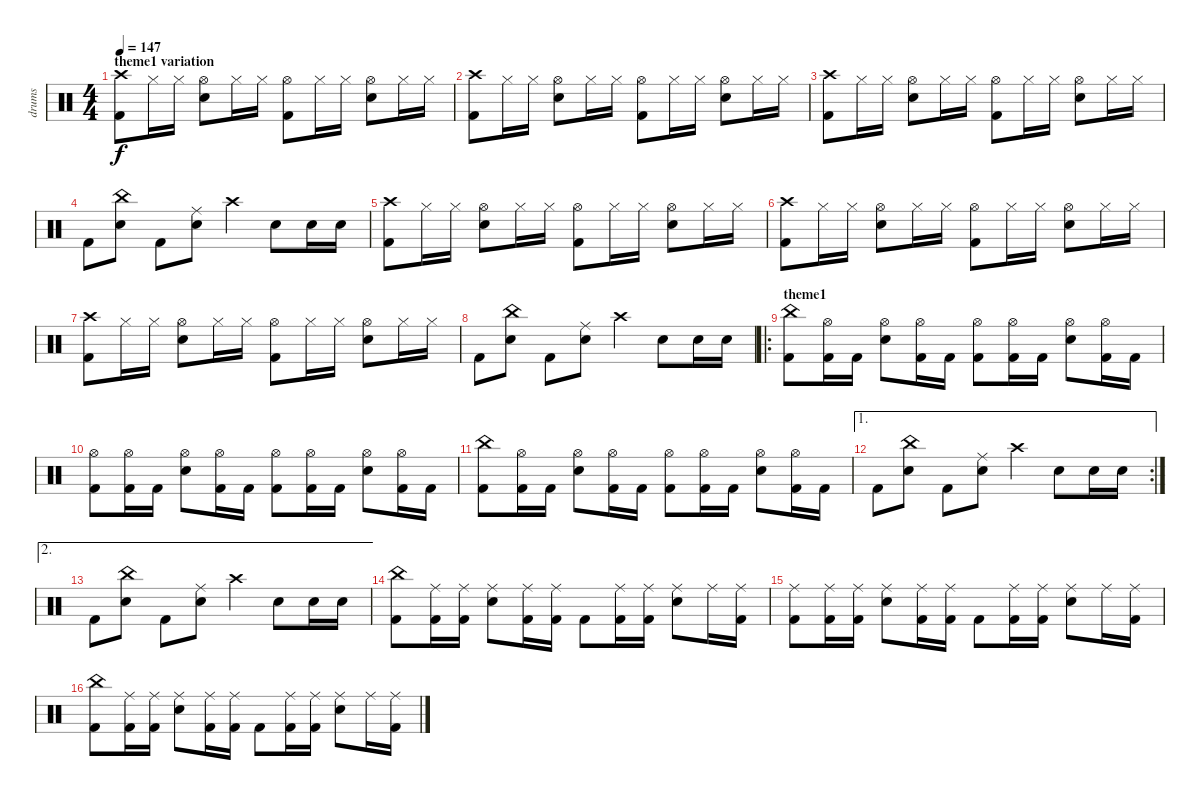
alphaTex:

\track ("drums" "drums") {instrument percussion}
\staff {score}
\articulation defaults
\ts (4 4)
\section ("" "theme1 variation")
\tempo 147
\clef neutral
\ks c
("Crash high (hit)" "Kick (hit) 2").8{dy f} "Hi-Hat (closed)".16 "Hi-Hat (closed)".16 ("Hi-Hat (open)" "Snare (hit) 2").8 "Hi-Hat (closed)".16 "Hi-Hat (closed)".16 ("Hi-Hat (open)" "Kick (hit) 2").8 "Hi-Hat (closed)".16 "Hi-Hat (closed)".16 ("Hi-Hat (open)" "Snare (hit) 2").8 "Hi-Hat (closed)".16 "Hi-Hat (closed)".16 |
("Crash high (hit)" "Kick (hit) 2").8 "Hi-Hat (closed)".16 "Hi-Hat (closed)".16 ("Hi-Hat (open)" "Snare (hit) 2").8 "Hi-Hat (closed)".16 "Hi-Hat (closed)".16 ("Hi-Hat (open)" "Kick (hit) 2").8 "Hi-Hat (closed)".16 "Hi-Hat (closed)".16 ("Hi-Hat (open)" "Snare (hit) 2").8 "Hi-Hat (closed)".16 "Hi-Hat (closed)".16 |
("Crash high (hit)" "Kick (hit) 2").8 "Hi-Hat (closed)".16 "Hi-Hat (closed)".16 ("Hi-Hat (open)" "Snare (hit) 2").8 "Hi-Hat (closed)".16 "Hi-Hat (closed)".16 ("Hi-Hat (open)" "Kick (hit) 2").8 "Hi-Hat (closed)".16 "Hi-Hat (closed)".16 ("Hi-Hat (open)" "Snare (hit) 2").8 "Hi-Hat (closed)".16 "Hi-Hat (closed)".16 |
"Kick (hit) 2".8 ("China (hit)" "Snare (hit) 2").8 "Kick (hit) 2".8 ("Ride (middle)" "Snare (hit) 2").8 "Crash high (hit)".4 "Snare (hit) 2".8 "Snare (hit) 2".16 "Snare (hit) 2".16 |
("Crash high (hit)" "Kick (hit) 2").8 "Hi-Hat (closed)".16 "Hi-Hat (closed)".16 ("Hi-Hat (open)" "Snare (hit) 2").8 "Hi-Hat (closed)".16 "Hi-Hat (closed)".16 ("Hi-Hat (open)" "Kick (hit) 2").8 "Hi-Hat (closed)".16 "Hi-Hat (closed)".16 ("Hi-Hat (open)" "Snare (hit) 2").8 "Hi-Hat (closed)".16 "Hi-Hat (closed)".16 |
("Crash high (hit)" "Kick (hit) 2").8 "Hi-Hat (closed)".16 "Hi-Hat (closed)".16 ("Hi-Hat (open)" "Snare (hit) 2").8 "Hi-Hat (closed)".16 "Hi-Hat (closed)".16 ("Hi-Hat (open)" "Kick (hit) 2").8 "Hi-Hat (closed)".16 "Hi-Hat (closed)".16 ("Hi-Hat (open)" "Snare (hit) 2").8 "Hi-Hat (closed)".16 "Hi-Hat (closed)".16 |
("Crash high (hit)" "Kick (hit) 2").8 "Hi-Hat (closed)".16 "Hi-Hat (closed)".16 ("Hi-Hat (open)" "Snare (hit) 2").8 "Hi-Hat (closed)".16 "Hi-Hat (closed)".16 ("Hi-Hat (open)" "Kick (hit) 2").8 "Hi-Hat (closed)".16 "Hi-Hat (closed)".16 ("Hi-Hat (open)" "Snare (hit) 2").8 "Hi-Hat (closed)".16 "Hi-Hat (closed)".16 |
"Kick (hit) 2".8 ("China (hit)" "Snare (hit) 2").8 "Kick (hit) 2".8 ("Ride (middle)" "Snare (hit) 2").8 "Crash high (hit)".4 "Snare (hit) 2".8 "Snare (hit) 2".16 "Snare (hit) 2".16 |
\ro
\section ("" "theme1")
("China (hit)" "Kick (hit) 2").8 ("Hi-Hat (open)" "Kick (hit) 2").16 "Kick (hit) 2".16 ("Hi-Hat (open)" "Snare (hit) 2").8 ("Hi-Hat (open)" "Kick (hit) 2").16 "Kick (hit) 2".16 ("Hi-Hat (open)" "Kick (hit) 2").8 ("Hi-Hat (open)" "Kick (hit) 2").16 "Kick (hit) 2".16 ("Hi-Hat (open)" "Snare (hit) 2").8 ("Hi-Hat (open)" "Kick (hit) 2").16 "Kick (hit) 2".16 |
("Hi-Hat (open)" "Kick (hit) 2").8 ("Hi-Hat (open)" "Kick (hit) 2").16 "Kick (hit) 2".16 ("Hi-Hat (open)" "Snare (hit) 2").8 ("Hi-Hat (open)" "Kick (hit) 2").16 "Kick (hit) 2".16 ("Hi-Hat (open)" "Kick (hit) 2").8 ("Hi-Hat (open)" "Kick (hit) 2").16 "Kick (hit) 2".16 ("Hi-Hat (open)" "Snare (hit) 2").8 ("Hi-Hat (open)" "Kick (hit) 2").16 "Kick (hit) 2".16 |
("China (hit)" "Kick (hit) 2").8 ("Hi-Hat (open)" "Kick (hit) 2").16 "Kick (hit) 2".16 ("Hi-Hat (open)" "Snare (hit) 2").8 ("Hi-Hat (open)" "Kick (hit) 2").16 "Kick (hit) 2".16 ("Hi-Hat (open)" "Kick (hit) 2").8 ("Hi-Hat (open)" "Kick (hit) 2").16 "Kick (hit) 2".16 ("Hi-Hat (open)" "Snare (hit) 2").8 ("Hi-Hat (open)" "Kick (hit) 2").16 "Kick (hit) 2".16 |
\ae 1
\rc 2 "Kick (hit) 2".8
("China (hit)" "Snare (hit) 2").8 "Kick (hit) 2".8 ("Ride (middle)" "Snare (hit) 2").8 "Crash high (hit)".4 "Snare (hit) 2".8 "Snare (hit) 2".16 "Snare (hit) 2".16 |
\ae 2 "Kick (hit) 2".8
("China (hit)" "Snare (hit) 2").8 "Kick (hit) 2".8 ("Ride (middle)" "Snare (hit) 2").8 "Crash high (hit)".4 "Snare (hit) 2".8 "Snare (hit) 2".16 "Snare (hit) 2".16 |
("China (hit)" "Kick (hit) 2").8 ("Ride (middle)" "Kick (hit) 2").16 ("Ride (middle)" "Kick (hit) 2").16 ("Ride (middle)" "Snare (hit) 2").8 ("Ride (middle)" "Kick (hit) 2").16 ("Ride (middle)" "Kick (hit) 2").16 "Kick (hit) 2".8 ("Ride (middle)" "Kick (hit) 2").16 ("Ride (middle)" "Kick (hit) 2").16 ("Ride (middle)" "Snare (hit) 2").8 "Ride (middle)".16 ("Ride (middle)" "Kick (hit) 2").16 |
("Ride (middle)" "Kick (hit) 2").8 ("Ride (middle)" "Kick (hit) 2").16 ("Ride (middle)" "Kick (hit) 2").16 ("Ride (middle)" "Snare (hit) 2").8 ("Ride (middle)" "Kick (hit) 2").16 ("Ride (middle)" "Kick (hit) 2").16 "Kick (hit) 2".8 ("Ride (middle)" "Kick (hit) 2").16 ("Ride (middle)" "Kick (hit) 2").16 ("Ride (middle)" "Snare (hit) 2").8 "Ride (middle)".16 ("Ride (middle)" "Kick (hit) 2").16 |
("China (hit)" "Kick (hit) 2").8 ("Ride (middle)" "Kick (hit) 2").16 ("Ride (middle)" "Kick (hit) 2").16 ("Ride (middle)" "Snare (hit) 2").8 ("Ride (middle)" "Kick (hit) 2").16 ("Ride (middle)" "Kick (hit) 2").16 "Kick (hit) 2".8 ("Ride (middle)" "Kick (hit) 2").16 ("Ride (middle)" "Kick (hit) 2").16 ("Ride (middle)" "Snare (hit) 2").8 "Ride (middle)".16 ("Ride (middle)" "Kick (hit) 2").16
